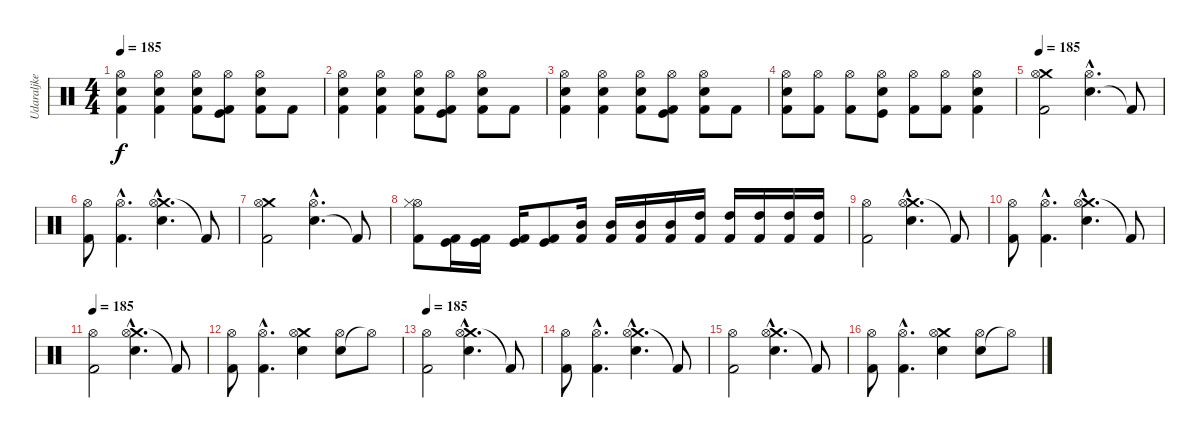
\track ("Udaraljke" "Udaraljke") {instrument percussion}
\staff {score}
\articulation defaults
\ts (4 4)
\tempo 185
\clef neutral
\ks c
("Hi-Hat (open)" "Electric Snare (hit)" "Kick (hit) 2").4{dy f} ("Hi-Hat (open)" "Electric Snare (hit)" "Kick (hit) 2").4 ("Hi-Hat (open)" "Electric Snare (hit)" "Kick (hit) 2").8 ("Hi-Hat (open)" "Kick (hit)" "Kick (hit) 2").8 ("Hi-Hat (open)" "Electric Snare (hit)" "Kick (hit) 2").8 "Kick (hit) 2".8 |
("Hi-Hat (open)" "Electric Snare (hit)" "Kick (hit) 2").4 ("Hi-Hat (open)" "Electric Snare (hit)" "Kick (hit) 2").4 ("Hi-Hat (open)" "Electric Snare (hit)" "Kick (hit) 2").8 ("Hi-Hat (open)" "Kick (hit)" "Kick (hit) 2").8 ("Hi-Hat (open)" "Electric Snare (hit)" "Kick (hit) 2").8 "Kick (hit) 2".8 |
("Hi-Hat (open)" "Electric Snare (hit)" "Kick (hit) 2").4 ("Hi-Hat (open)" "Electric Snare (hit)" "Kick (hit) 2").4 ("Hi-Hat (open)" "Electric Snare (hit)" "Kick (hit) 2").8 ("Hi-Hat (open)" "Kick (hit)" "Kick (hit) 2").8 ("Hi-Hat (open)" "Electric Snare (hit)" "Kick (hit) 2").8 "Kick (hit) 2".8 |
("Hi-Hat (open)" "Electric Snare (hit)" "Kick (hit) 2").8 ("Hi-Hat (open)" "Kick (hit) 2").8 ("Hi-Hat (open)" "Kick (hit) 2").8 ("Hi-Hat (open)" "Electric Snare (hit)" "Kick (hit)").8 ("Hi-Hat (open)" "Kick (hit) 2").8 ("Hi-Hat (open)" "Kick (hit) 2").8 ("Hi-Hat (open)" "Electric Snare (hit)" "Kick (hit) 2").4 |
\tempo 185
("Crash medium (hit)" "Hi-Hat (open)" "Kick (hit) 2").2 ("Electric Snare (hit)"{hac} "Hi-Hat (open)"{hac}).4{d} "Kick (hit) 2"{t}.8 |
("Hi-Hat (open)" "Kick (hit) 2").8 ("Hi-Hat (open)"{hac} "Kick (hit) 2"{hac}).4{d} ("Crash medium (hit)"{hac} "Electric Snare (hit)"{hac} "Hi-Hat (open)"{hac}).4{d} "Kick (hit) 2"{t}.8 |
("Crash medium (hit)" "Hi-Hat (open)" "Kick (hit) 2").2 ("Electric Snare (hit)"{hac} "Hi-Hat (open)"{hac}).4{d} "Kick (hit) 2"{t}.8 |
("Kick (hit) 2" "Hi-Hat (open)" "Hi-Hat (closed)").8 ("Kick (hit) 2" "Kick (hit)").16 ("Kick (hit) 2" "Kick (hit)").16 ("Kick (hit) 2" "Kick (hit)").16 ("Kick (hit) 2" "Kick (hit)").8 ("Kick (hit) 2" "Mid Tom (hit)").16 ("Kick (hit) 2" "Mid Tom (hit)").16 ("Kick (hit) 2" "Mid Tom (hit)").16 ("Kick (hit) 2" "Mid Tom (hit)").16 ("Kick (hit) 2" "High Tom (hit)").16 ("Kick (hit) 2" "High Tom (hit)").16 ("Kick (hit) 2" "High Tom (hit)").16 ("Kick (hit) 2" "High Tom (hit)").16 ("Kick (hit) 2" "High Tom (hit)").16 |
("Hi-Hat (open)" "Kick (hit) 2").2 ("Crash medium (hit)"{hac} "Electric Snare (hit)"{hac} "Hi-Hat (open)"{hac}).4{d} "Kick (hit) 2"{t}.8 |
("Hi-Hat (open)" "Kick (hit) 2").8 ("Hi-Hat (open)"{hac} "Kick (hit) 2"{hac}).4{d} ("Crash medium (hit)"{hac} "Electric Snare (hit)"{hac} "Hi-Hat (open)"{hac}).4{d} "Kick (hit) 2"{t}.8 |
\tempo 185
("Hi-Hat (open)" "Kick (hit) 2").2 ("Crash medium (hit)"{hac} "Electric Snare (hit)"{hac} "Hi-Hat (open)"{hac}).4{d} "Kick (hit) 2"{t}.8 |
("Hi-Hat (open)" "Kick (hit) 2").8 ("Hi-Hat (open)"{hac} "Kick (hit) 2"{hac}).4{d} ("Crash medium (hit)" "Electric Snare (hit)" "Hi-Hat (open)").4 ("Electric Snare (hit)" "Hi-Hat (open)").8 "Hi-Hat (open)"{t}.8 |
\tempo 185
("Hi-Hat (open)" "Kick (hit) 2").2 ("Crash medium (hit)"{hac} "Electric Snare (hit)"{hac} "Hi-Hat (open)"{hac}).4{d} "Kick (hit) 2"{t}.8 |
("Hi-Hat (open)" "Kick (hit) 2").8 ("Hi-Hat (open)"{hac} "Kick (hit) 2"{hac}).4{d} ("Crash medium (hit)"{hac} "Electric Snare (hit)"{hac} "Hi-Hat (open)"{hac}).4{d} "Kick (hit) 2"{t}.8 |
("Hi-Hat (open)" "Kick (hit) 2").2 ("Crash medium (hit)"{hac} "Electric Snare (hit)"{hac} "Hi-Hat (open)"{hac}).4{d} "Kick (hit) 2"{t}.8 |
("Hi-Hat (open)" "Kick (hit) 2").8 ("Hi-Hat (open)"{hac} "Kick (hit) 2"{hac}).4{d} ("Crash medium (hit)" "Electric Snare (hit)" "Hi-Hat (open)").4 ("Electric Snare (hit)" "Hi-Hat (open)").8 "Hi-Hat (open)"{t}.8
